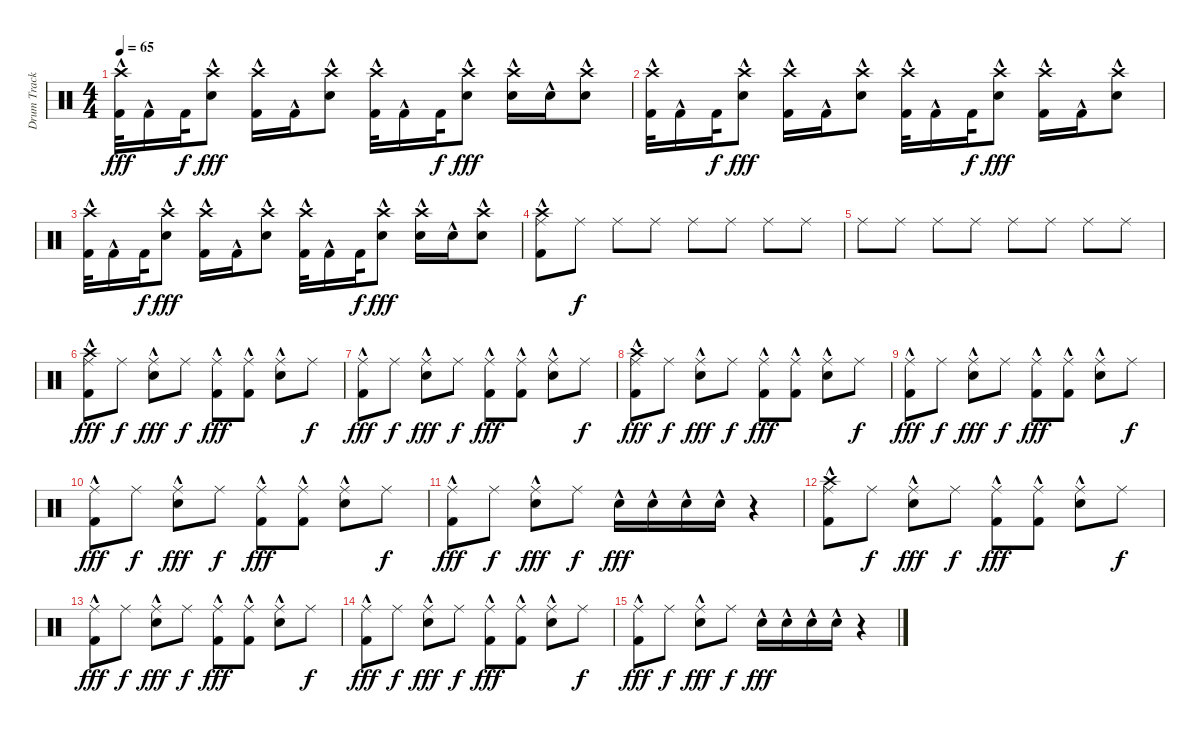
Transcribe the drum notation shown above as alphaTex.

\track ("Drum Track" "Drum Track") {instrument percussion}
\staff {score}
\articulation defaults
\ts (4 4)
\tempo 65
\clef neutral
\ks c
("Crash high (hit)" "Kick (hit) 2"{hac}).32{dy fff} "Kick (hit) 2"{hac}.16 "Kick (hit) 2".32{dy f} ("Crash high (hit)" "Electric Snare (hit)"{hac}).8{dy fff} ("Crash high (hit)" "Kick (hit) 2"{hac}).16 "Kick (hit) 2"{hac}.16 ("Crash high (hit)" "Electric Snare (hit)"{hac}).8 ("Crash high (hit)" "Kick (hit) 2"{hac}).32 "Kick (hit) 2"{hac}.16 "Kick (hit) 2".32{dy f} ("Crash high (hit)" "Electric Snare (hit)"{hac}).8{dy fff} ("Crash high (hit)" "Electric Snare (hit)"{hac}).16 "Electric Snare (hit)"{hac}.16 ("Crash high (hit)" "Electric Snare (hit)"{hac}).8 |
("Crash high (hit)" "Kick (hit) 2"{hac}).32 "Kick (hit) 2"{hac}.16 "Kick (hit) 2".32{dy f} ("Crash high (hit)" "Electric Snare (hit)"{hac}).8{dy fff} ("Crash high (hit)" "Kick (hit) 2"{hac}).16 "Kick (hit) 2"{hac}.16 ("Crash high (hit)" "Electric Snare (hit)"{hac}).8 ("Crash high (hit)" "Kick (hit) 2"{hac}).32 "Kick (hit) 2"{hac}.16 "Kick (hit) 2".32{dy f} ("Crash high (hit)" "Electric Snare (hit)"{hac}).8{dy fff} ("Crash high (hit)" "Kick (hit) 2"{hac}).16 "Kick (hit) 2"{hac}.16 ("Crash high (hit)" "Electric Snare (hit)"{hac}).8 |
("Crash high (hit)" "Kick (hit) 2"{hac}).32 "Kick (hit) 2"{hac}.16 "Kick (hit) 2".32{dy f} ("Crash high (hit)" "Electric Snare (hit)"{hac}).8{dy fff} ("Crash high (hit)" "Kick (hit) 2"{hac}).16 "Kick (hit) 2"{hac}.16 ("Crash high (hit)" "Electric Snare (hit)"{hac}).8 ("Crash high (hit)" "Kick (hit) 2"{hac}).32 "Kick (hit) 2"{hac}.16 "Kick (hit) 2".32{dy f} ("Crash high (hit)" "Electric Snare (hit)"{hac}).8{dy fff} ("Crash high (hit)" "Electric Snare (hit)"{hac}).16 "Electric Snare (hit)"{hac}.16 ("Crash high (hit)" "Electric Snare (hit)"{hac}).8 |
("Crash high (hit)" "Ride (middle)" "Kick (hit) 2"{hac}).8 "Ride (middle)".8{dy f} "Ride (middle)".8 "Ride (middle)".8 "Ride (middle)".8 "Ride (middle)".8 "Ride (middle)".8 "Ride (middle)".8 |
"Ride (middle)".8 "Ride (middle)".8 "Ride (middle)".8 "Ride (middle)".8 "Ride (middle)".8 "Ride (middle)".8 "Ride (middle)".8 "Ride (middle)".8 |
("Crash high (hit)" "Ride (middle)" "Kick (hit) 2"{hac}).8{dy fff} "Ride (middle)".8{dy f} ("Ride (middle)" "Electric Snare (hit)"{hac}).8{dy fff} "Ride (middle)".8{dy f} ("Ride (middle)" "Kick (hit) 2"{hac}).8{dy fff} ("Ride (middle)" "Kick (hit) 2"{hac}).8 ("Ride (middle)" "Electric Snare (hit)"{hac}).8 "Ride (middle)".8{dy f} |
("Ride (middle)" "Kick (hit) 2"{hac}).8{dy fff} "Ride (middle)".8{dy f} ("Ride (middle)" "Electric Snare (hit)"{hac}).8{dy fff} "Ride (middle)".8{dy f} ("Ride (middle)" "Kick (hit) 2"{hac}).8{dy fff} ("Ride (middle)" "Kick (hit) 2"{hac}).8 ("Ride (middle)" "Electric Snare (hit)"{hac}).8 "Ride (middle)".8{dy f} |
("Crash high (hit)" "Ride (middle)" "Kick (hit) 2"{hac}).8{dy fff} "Ride (middle)".8{dy f} ("Ride (middle)" "Electric Snare (hit)"{hac}).8{dy fff} "Ride (middle)".8{dy f} ("Ride (middle)" "Kick (hit) 2"{hac}).8{dy fff} ("Ride (middle)" "Kick (hit) 2"{hac}).8 ("Ride (middle)" "Electric Snare (hit)"{hac}).8 "Ride (middle)".8{dy f} |
("Ride (middle)" "Kick (hit) 2"{hac}).8{dy fff} "Ride (middle)".8{dy f} ("Ride (middle)" "Electric Snare (hit)"{hac}).8{dy fff} "Ride (middle)".8{dy f} ("Ride (middle)" "Kick (hit) 2"{hac}).8{dy fff} ("Ride (middle)" "Kick (hit) 2"{hac}).8 ("Ride (middle)" "Electric Snare (hit)"{hac}).8 "Ride (middle)".8{dy f} |
("Ride (middle)" "Kick (hit) 2"{hac}).8{dy fff} "Ride (middle)".8{dy f} ("Ride (middle)" "Electric Snare (hit)"{hac}).8{dy fff} "Ride (middle)".8{dy f} ("Ride (middle)" "Kick (hit) 2"{hac}).8{dy fff} ("Ride (middle)" "Kick (hit) 2"{hac}).8 ("Ride (middle)" "Electric Snare (hit)"{hac}).8 "Ride (middle)".8{dy f} |
("Ride (middle)" "Kick (hit) 2"{hac}).8{dy fff} "Ride (middle)".8{dy f} ("Ride (middle)" "Electric Snare (hit)"{hac}).8{dy fff} "Ride (middle)".8{dy f} "Electric Snare (hit)"{hac}.16{dy fff} "Electric Snare (hit)"{hac}.16 "Electric Snare (hit)"{hac}.16 "Electric Snare (hit)"{hac}.16 r.4 |
("Crash high (hit)" "Ride (middle)" "Kick (hit) 2"{hac}).8 "Ride (middle)".8{dy f} ("Ride (middle)" "Electric Snare (hit)"{hac}).8{dy fff} "Ride (middle)".8{dy f} ("Ride (middle)" "Kick (hit) 2"{hac}).8{dy fff} ("Ride (middle)" "Kick (hit) 2"{hac}).8 ("Ride (middle)" "Electric Snare (hit)"{hac}).8 "Ride (middle)".8{dy f} |
("Ride (middle)" "Kick (hit) 2"{hac}).8{dy fff} "Ride (middle)".8{dy f} ("Ride (middle)" "Electric Snare (hit)"{hac}).8{dy fff} "Ride (middle)".8{dy f} ("Ride (middle)" "Kick (hit) 2"{hac}).8{dy fff} ("Ride (middle)" "Kick (hit) 2"{hac}).8 ("Ride (middle)" "Electric Snare (hit)"{hac}).8 "Ride (middle)".8{dy f} |
("Ride (middle)" "Kick (hit) 2"{hac}).8{dy fff} "Ride (middle)".8{dy f} ("Ride (middle)" "Electric Snare (hit)"{hac}).8{dy fff} "Ride (middle)".8{dy f} ("Ride (middle)" "Kick (hit) 2"{hac}).8{dy fff} ("Ride (middle)" "Kick (hit) 2"{hac}).8 ("Ride (middle)" "Electric Snare (hit)"{hac}).8 "Ride (middle)".8{dy f} |
("Ride (middle)" "Kick (hit) 2"{hac}).8{dy fff} "Ride (middle)".8{dy f} ("Ride (middle)" "Electric Snare (hit)"{hac}).8{dy fff} "Ride (middle)".8{dy f} "Electric Snare (hit)"{hac}.16{dy fff} "Electric Snare (hit)"{hac}.16 "Electric Snare (hit)"{hac}.16 "Electric Snare (hit)"{hac}.16 r.4
